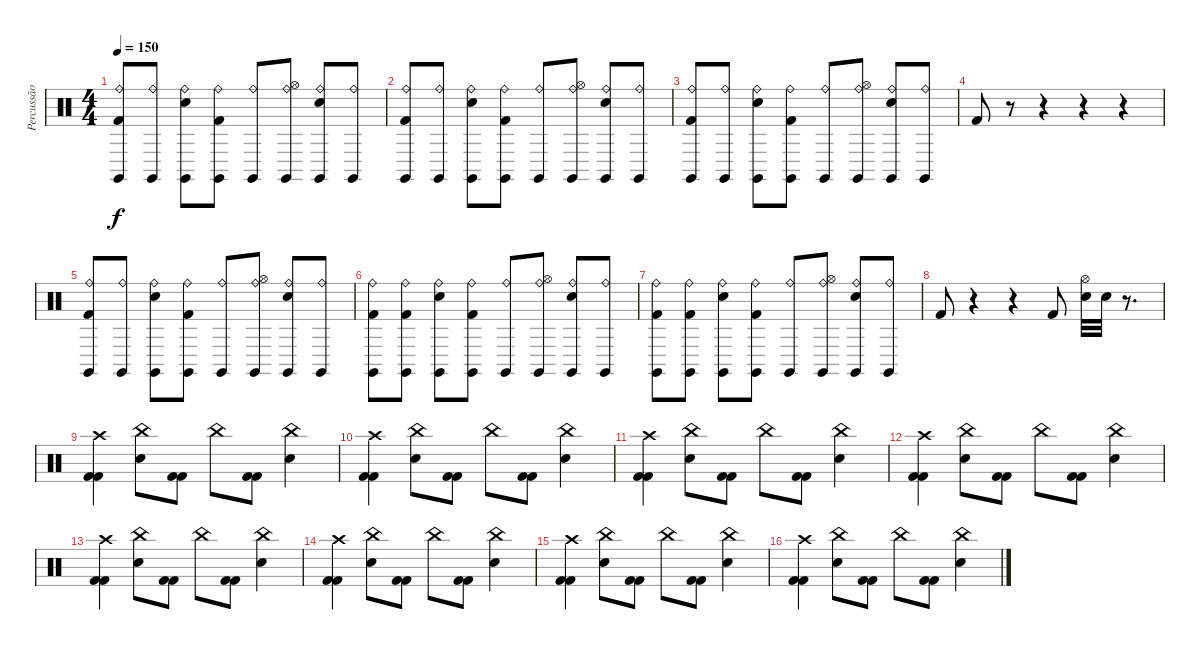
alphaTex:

\track ("Percussão" "Percussão") {instrument percussion}
\staff {score}
\articulation defaults
\ts (4 4)
\tempo 150
\clef neutral
\ks c
("Ride (bell)" "Claves (hit)" "Kick (hit) 2").8{dy f} ("Ride (bell)" "Claves (hit)").8 ("Ride (bell)" "Claves (hit)" "Electric Snare (hit)").8 ("Ride (bell)" "Claves (hit)" "Kick (hit) 2").8 ("Ride (bell)" "Claves (hit)").8 ("Ride (bell)" "Claves (hit)" "Hi-Hat (open)").8 ("Ride (bell)" "Claves (hit)" "Electric Snare (hit)").8 ("Ride (bell)" "Claves (hit)").8 |
("Ride (bell)" "Claves (hit)" "Kick (hit) 2").8 ("Ride (bell)" "Claves (hit)").8 ("Ride (bell)" "Claves (hit)" "Electric Snare (hit)").8 ("Ride (bell)" "Claves (hit)" "Kick (hit) 2").8 ("Ride (bell)" "Claves (hit)").8 ("Ride (bell)" "Claves (hit)" "Hi-Hat (open)").8 ("Ride (bell)" "Claves (hit)" "Electric Snare (hit)").8 ("Ride (bell)" "Claves (hit)").8 |
("Ride (bell)" "Claves (hit)" "Kick (hit) 2").8 ("Ride (bell)" "Claves (hit)").8 ("Ride (bell)" "Claves (hit)" "Electric Snare (hit)").8 ("Ride (bell)" "Claves (hit)" "Kick (hit) 2").8 ("Ride (bell)" "Claves (hit)").8 ("Ride (bell)" "Claves (hit)" "Hi-Hat (open)").8 ("Ride (bell)" "Claves (hit)" "Electric Snare (hit)").8 ("Ride (bell)" "Claves (hit)").8 |
"Kick (hit) 2".8 r.8 r.4 r.4 r.4 |
("Ride (bell)" "Claves (hit)" "Kick (hit) 2").8 ("Ride (bell)" "Claves (hit)").8 ("Ride (bell)" "Claves (hit)" "Electric Snare (hit)").8 ("Ride (bell)" "Claves (hit)" "Kick (hit) 2").8 ("Ride (bell)" "Claves (hit)").8 ("Ride (bell)" "Claves (hit)" "Hi-Hat (open)").8 ("Ride (bell)" "Claves (hit)" "Electric Snare (hit)").8 ("Ride (bell)" "Claves (hit)").8 |
("Ride (bell)" "Claves (hit)" "Kick (hit) 2").8 ("Ride (bell)" "Claves (hit)" "Kick (hit) 2").8 ("Ride (bell)" "Claves (hit)" "Electric Snare (hit)").8 ("Ride (bell)" "Claves (hit)" "Kick (hit) 2").8 ("Ride (bell)" "Claves (hit)").8 ("Ride (bell)" "Claves (hit)" "Hi-Hat (open)").8 ("Ride (bell)" "Claves (hit)" "Electric Snare (hit)").8 ("Ride (bell)" "Claves (hit)").8 |
("Ride (bell)" "Claves (hit)" "Kick (hit) 2").8 ("Ride (bell)" "Claves (hit)" "Kick (hit) 2").8 ("Ride (bell)" "Claves (hit)" "Electric Snare (hit)").8 ("Ride (bell)" "Claves (hit)" "Kick (hit) 2").8 ("Ride (bell)" "Claves (hit)").8 ("Ride (bell)" "Claves (hit)" "Hi-Hat (open)").8 ("Ride (bell)" "Claves (hit)" "Electric Snare (hit)").8 ("Ride (bell)" "Claves (hit)").8 |
"Kick (hit) 2".8 r.4 r.4 "Kick (hit) 2".8 ("Hi-Hat (open)" "Electric Snare (hit)").32 "Electric Snare (hit)".32 r.8{d} |
("Crash high (hit)" "Kick (hit) 2" "Kick (hit) 2").4 ("China (hit)" "Electric Snare (hit)").8 ("Kick (hit) 2" "Kick (hit) 2").8 "China (hit)".8 ("Kick (hit) 2" "Kick (hit) 2").8 ("China (hit)" "Electric Snare (hit)").4 |
("Crash high (hit)" "Kick (hit) 2" "Kick (hit) 2").4 ("China (hit)" "Electric Snare (hit)").8 ("Kick (hit) 2" "Kick (hit) 2").8 "China (hit)".8 ("Kick (hit) 2" "Kick (hit) 2").8 ("China (hit)" "Electric Snare (hit)").4 |
("Crash high (hit)" "Kick (hit) 2" "Kick (hit) 2").4 ("China (hit)" "Electric Snare (hit)").8 ("Kick (hit) 2" "Kick (hit) 2").8 "China (hit)".8 ("Kick (hit) 2" "Kick (hit) 2").8 ("China (hit)" "Electric Snare (hit)").4 |
("Crash high (hit)" "Kick (hit) 2" "Kick (hit) 2").4 ("China (hit)" "Electric Snare (hit)").8 ("Kick (hit) 2" "Kick (hit) 2").8 "China (hit)".8 ("Kick (hit) 2" "Kick (hit) 2").8 ("China (hit)" "Electric Snare (hit)").4 |
("Crash high (hit)" "Kick (hit) 2" "Kick (hit) 2").4 ("China (hit)" "Electric Snare (hit)").8 ("Kick (hit) 2" "Kick (hit) 2").8 "China (hit)".8 ("Kick (hit) 2" "Kick (hit) 2").8 ("China (hit)" "Electric Snare (hit)").4 |
("Crash high (hit)" "Kick (hit) 2" "Kick (hit) 2").4 ("China (hit)" "Electric Snare (hit)").8 ("Kick (hit) 2" "Kick (hit) 2").8 "China (hit)".8 ("Kick (hit) 2" "Kick (hit) 2").8 ("China (hit)" "Electric Snare (hit)").4 |
("Crash high (hit)" "Kick (hit) 2" "Kick (hit) 2").4 ("China (hit)" "Electric Snare (hit)").8 ("Kick (hit) 2" "Kick (hit) 2").8 "China (hit)".8 ("Kick (hit) 2" "Kick (hit) 2").8 ("China (hit)" "Electric Snare (hit)").4 |
("Crash high (hit)" "Kick (hit) 2" "Kick (hit) 2").4 ("China (hit)" "Electric Snare (hit)").8 ("Kick (hit) 2" "Kick (hit) 2").8 "China (hit)".8 ("Kick (hit) 2" "Kick (hit) 2").8 ("China (hit)" "Electric Snare (hit)").4
